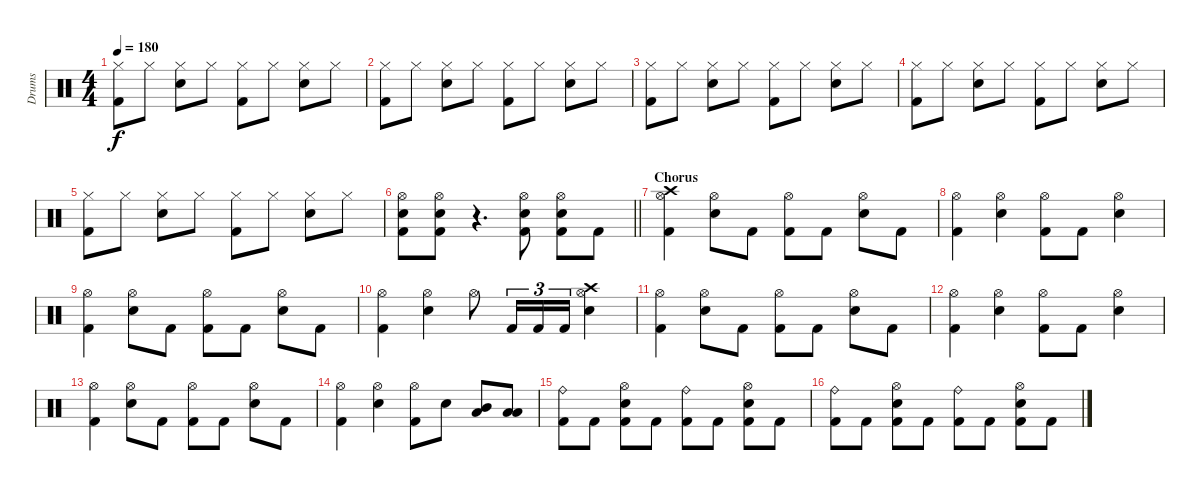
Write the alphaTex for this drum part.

\track ("Drums" "Drums") {instrument percussion}
\staff {score}
\articulation defaults
\ts (4 4)
\tempo 180
\clef neutral
\ks c
("Kick (hit) 2" "Hi-Hat (closed)").8{dy f} "Hi-Hat (closed)".8 ("Snare (hit) 2" "Hi-Hat (closed)").8 "Hi-Hat (closed)".8 ("Kick (hit) 2" "Hi-Hat (closed)").8 "Hi-Hat (closed)".8 ("Snare (hit) 2" "Hi-Hat (closed)").8 "Hi-Hat (closed)".8 |
("Kick (hit) 2" "Hi-Hat (closed)").8 "Hi-Hat (closed)".8 ("Snare (hit) 2" "Hi-Hat (closed)").8 "Hi-Hat (closed)".8 ("Kick (hit) 2" "Hi-Hat (closed)").8 "Hi-Hat (closed)".8 ("Snare (hit) 2" "Hi-Hat (closed)").8 "Hi-Hat (closed)".8 |
("Kick (hit) 2" "Hi-Hat (closed)").8 "Hi-Hat (closed)".8 ("Snare (hit) 2" "Hi-Hat (closed)").8 "Hi-Hat (closed)".8 ("Kick (hit) 2" "Hi-Hat (closed)").8 "Hi-Hat (closed)".8 ("Snare (hit) 2" "Hi-Hat (closed)").8 "Hi-Hat (closed)".8 |
("Kick (hit) 2" "Hi-Hat (closed)").8 "Hi-Hat (closed)".8 ("Snare (hit) 2" "Hi-Hat (closed)").8 "Hi-Hat (closed)".8 ("Kick (hit) 2" "Hi-Hat (closed)").8 "Hi-Hat (closed)".8 ("Snare (hit) 2" "Hi-Hat (closed)").8 "Hi-Hat (closed)".8 |
("Kick (hit) 2" "Hi-Hat (closed)").8 "Hi-Hat (closed)".8 ("Snare (hit) 2" "Hi-Hat (closed)").8 "Hi-Hat (closed)".8 ("Kick (hit) 2" "Hi-Hat (closed)").8 "Hi-Hat (closed)".8 ("Snare (hit) 2" "Hi-Hat (closed)").8 "Hi-Hat (closed)".8 |
\barLineRight lightlight
("Hi-Hat (open)" "Snare (hit) 2" "Kick (hit) 2").8 ("Hi-Hat (open)" "Snare (hit) 2" "Kick (hit) 2").8 r.4{d} ("Hi-Hat (open)" "Snare (hit) 2" "Kick (hit) 2").8 ("Hi-Hat (open)" "Snare (hit) 2" "Kick (hit) 2").8 "Kick (hit) 2".8 |
\section ("" "Chorus")
("Kick (hit) 2" "Hi-Hat (open)" "Crash high (hit)").4 ("Snare (hit) 2" "Hi-Hat (open)").8 "Kick (hit) 2".8 ("Kick (hit) 2" "Hi-Hat (open)").8 "Kick (hit) 2".8 ("Snare (hit) 2" "Hi-Hat (open)").8 "Kick (hit) 2".8 |
("Kick (hit) 2" "Hi-Hat (open)").4 ("Snare (hit) 2" "Hi-Hat (open)").4 ("Kick (hit) 2" "Hi-Hat (open)").8 "Kick (hit) 2".8 ("Snare (hit) 2" "Hi-Hat (open)").4 |
("Kick (hit) 2" "Hi-Hat (open)").4 ("Snare (hit) 2" "Hi-Hat (open)").8 "Kick (hit) 2".8 ("Kick (hit) 2" "Hi-Hat (open)").8 "Kick (hit) 2".8 ("Snare (hit) 2" "Hi-Hat (open)").8 "Kick (hit) 2".8 |
("Kick (hit) 2" "Hi-Hat (open)").4 ("Snare (hit) 2" "Hi-Hat (open)").4 "Hi-Hat (open)".8 "Kick (hit) 2".16{tu (3 2)} "Kick (hit) 2".16{tu (3 2)} "Kick (hit) 2".16{tu (3 2)} ("Snare (hit) 2" "Hi-Hat (open)" "Crash high (hit)").4 |
("Kick (hit) 2" "Hi-Hat (open)").4 ("Snare (hit) 2" "Hi-Hat (open)").8 "Kick (hit) 2".8 ("Kick (hit) 2" "Hi-Hat (open)").8 "Kick (hit) 2".8 ("Snare (hit) 2" "Hi-Hat (open)").8 "Kick (hit) 2".8 |
("Kick (hit) 2" "Hi-Hat (open)").4 ("Snare (hit) 2" "Hi-Hat (open)").4 ("Kick (hit) 2" "Hi-Hat (open)").8 "Kick (hit) 2".8 ("Snare (hit) 2" "Hi-Hat (open)").4 |
("Kick (hit) 2" "Hi-Hat (open)").4 ("Snare (hit) 2" "Hi-Hat (open)").8 "Kick (hit) 2".8 ("Kick (hit) 2" "Hi-Hat (open)").8 "Kick (hit) 2".8 ("Snare (hit) 2" "Hi-Hat (open)").8 "Kick (hit) 2".8 |
("Kick (hit) 2" "Hi-Hat (open)").4 ("Snare (hit) 2" "Hi-Hat (open)").4 ("Kick (hit) 2" "Hi-Hat (open)").8 "Snare (hit) 2".8 ("Mid Tom (hit)" "Low Tom (hit)").8 ("Low Tom (hit)" "Low Floor Tom (hit)").8 |
("Ride (bell)" "Kick (hit) 2").8 "Kick (hit) 2".8 ("Snare (hit) 2" "Hi-Hat (open)" "Kick (hit) 2").8 "Kick (hit) 2".8 ("Ride (bell)" "Kick (hit) 2").8 "Kick (hit) 2".8 ("Snare (hit) 2" "Hi-Hat (open)" "Kick (hit) 2").8 "Kick (hit) 2".8 |
("Ride (bell)" "Kick (hit) 2").8 "Kick (hit) 2".8 ("Snare (hit) 2" "Hi-Hat (open)" "Kick (hit) 2").8 "Kick (hit) 2".8 ("Ride (bell)" "Kick (hit) 2").8 "Kick (hit) 2".8 ("Snare (hit) 2" "Hi-Hat (open)" "Kick (hit) 2").8 "Kick (hit) 2".8
